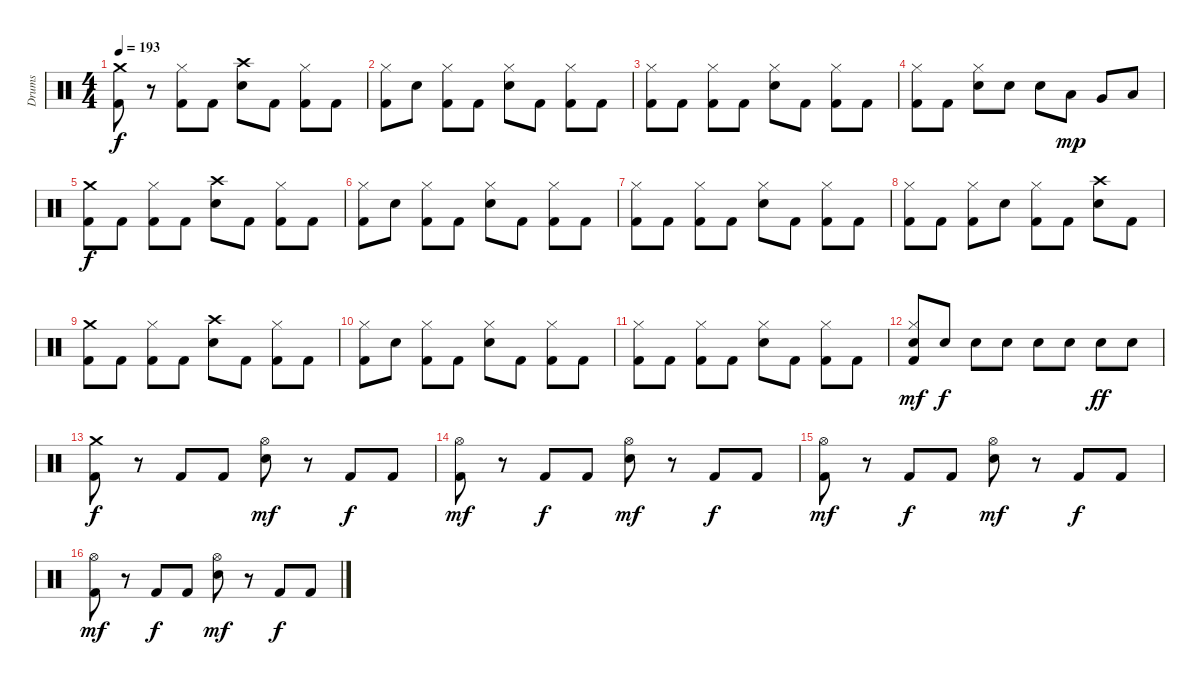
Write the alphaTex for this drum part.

\track ("Drums" "Drums") {instrument percussion}
\staff {score}
\articulation defaults
\ts (4 4)
\tempo 193
\clef neutral
\ks c
("Crash medium (hit)" "Kick (hit) 2").8{dy f} r.8 ("Hi-Hat (closed)" "Kick (hit) 2").8 "Kick (hit) 2".8 ("Crash high (hit)" "Snare (hit) 2").8 "Kick (hit) 2".8 ("Hi-Hat (closed)" "Kick (hit) 2").8 "Kick (hit) 2".8 |
("Hi-Hat (closed)" "Kick (hit) 2").8 "Snare (hit) 2".8 ("Hi-Hat (closed)" "Kick (hit) 2").8 "Kick (hit) 2".8 ("Hi-Hat (closed)" "Snare (hit) 2").8 "Kick (hit) 2".8 ("Hi-Hat (closed)" "Kick (hit) 2").8 "Kick (hit) 2".8 |
("Hi-Hat (closed)" "Kick (hit) 2").8 "Kick (hit) 2".8 ("Hi-Hat (closed)" "Kick (hit) 2").8 "Kick (hit) 2".8 ("Hi-Hat (closed)" "Snare (hit) 2").8 "Kick (hit) 2".8 ("Hi-Hat (closed)" "Kick (hit) 2").8 "Kick (hit) 2".8 |
("Hi-Hat (closed)" "Kick (hit) 2").8 "Kick (hit) 2".8 ("Hi-Hat (closed)" "Snare (hit) 2").8 "Snare (hit) 2".8 "Snare (hit) 2".8 "Low Tom (hit)".8{dy mp} "Very Low Tom (hit)".8 "Low Floor Tom (hit)".8 |
("Crash medium (hit)" "Kick (hit) 2").8{dy f} "Kick (hit) 2".8 ("Hi-Hat (closed)" "Kick (hit) 2").8 "Kick (hit) 2".8 ("Crash high (hit)" "Snare (hit) 2").8 "Kick (hit) 2".8 ("Hi-Hat (closed)" "Kick (hit) 2").8 "Kick (hit) 2".8 |
("Hi-Hat (closed)" "Kick (hit) 2").8 "Snare (hit) 2".8 ("Hi-Hat (closed)" "Kick (hit) 2").8 "Kick (hit) 2".8 ("Hi-Hat (closed)" "Snare (hit) 2").8 "Kick (hit) 2".8 ("Hi-Hat (closed)" "Kick (hit) 2").8 "Kick (hit) 2".8 |
("Hi-Hat (closed)" "Kick (hit) 2").8 "Kick (hit) 2".8 ("Hi-Hat (closed)" "Kick (hit) 2").8 "Kick (hit) 2".8 ("Hi-Hat (closed)" "Snare (hit) 2").8 "Kick (hit) 2".8 ("Hi-Hat (closed)" "Kick (hit) 2").8 "Kick (hit) 2".8 |
("Hi-Hat (closed)" "Kick (hit) 2").8 "Kick (hit) 2".8 ("Hi-Hat (closed)" "Kick (hit) 2").8 "Snare (hit) 2".8 ("Hi-Hat (closed)" "Kick (hit) 2").8 "Kick (hit) 2".8 ("Crash high (hit)" "Snare (hit) 2").8 "Kick (hit) 2".8 |
("Crash medium (hit)" "Kick (hit) 2").8 "Kick (hit) 2".8 ("Hi-Hat (closed)" "Kick (hit) 2").8 "Kick (hit) 2".8 ("Crash high (hit)" "Snare (hit) 2").8 "Kick (hit) 2".8 ("Hi-Hat (closed)" "Kick (hit) 2").8 "Kick (hit) 2".8 |
("Hi-Hat (closed)" "Kick (hit) 2").8 "Snare (hit) 2".8 ("Hi-Hat (closed)" "Kick (hit) 2").8 "Kick (hit) 2".8 ("Hi-Hat (closed)" "Snare (hit) 2").8 "Kick (hit) 2".8 ("Hi-Hat (closed)" "Kick (hit) 2").8 "Kick (hit) 2".8 |
("Hi-Hat (closed)" "Kick (hit) 2").8 "Kick (hit) 2".8 ("Hi-Hat (closed)" "Kick (hit) 2").8 "Kick (hit) 2".8 ("Hi-Hat (closed)" "Snare (hit) 2").8 "Kick (hit) 2".8 ("Hi-Hat (closed)" "Kick (hit) 2").8 "Kick (hit) 2".8 |
("Hi-Hat (closed)" "Snare (hit) 2" "Kick (hit) 2").8{dy mf} "Snare (hit) 2".8{dy f} "Snare (hit) 2".8 "Snare (hit) 2".8 "Snare (hit) 2".8 "Snare (hit) 2".8 "Snare (hit) 2".8{dy ff} "Snare (hit) 2".8 |
("Crash medium (hit)" "Kick (hit) 2").8{dy f} r.8 "Kick (hit) 2".8 "Kick (hit) 2".8 ("Hi-Hat (open)" "Snare (hit) 2").8{dy mf} r.8 "Kick (hit) 2".8{dy f} "Kick (hit) 2".8 |
("Hi-Hat (open)" "Kick (hit) 2").8{dy mf} r.8 "Kick (hit) 2".8{dy f} "Kick (hit) 2".8 ("Hi-Hat (open)" "Snare (hit) 2").8{dy mf} r.8 "Kick (hit) 2".8{dy f} "Kick (hit) 2".8 |
("Hi-Hat (open)" "Kick (hit) 2").8{dy mf} r.8 "Kick (hit) 2".8{dy f} "Kick (hit) 2".8 ("Hi-Hat (open)" "Snare (hit) 2").8{dy mf} r.8 "Kick (hit) 2".8{dy f} "Kick (hit) 2".8 |
("Hi-Hat (open)" "Kick (hit) 2").8{dy mf} r.8 "Kick (hit) 2".8{dy f} "Kick (hit) 2".8 ("Hi-Hat (open)" "Snare (hit) 2").8{dy mf} r.8 "Kick (hit) 2".8{dy f} "Kick (hit) 2".8
